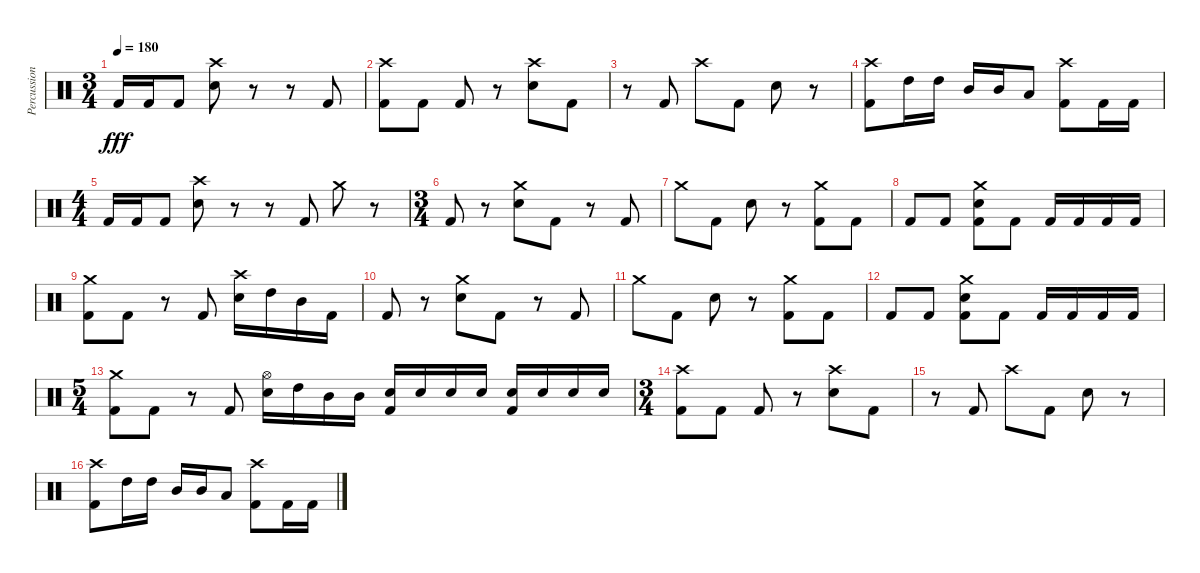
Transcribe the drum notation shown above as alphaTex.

\track ("Percussion" "Percussion") {instrument percussion}
\staff {score}
\articulation defaults
\ts (3 4)
\tempo 180
\clef neutral
\ks c "Kick (hit) 2".16{dy fff} "Kick (hit) 2".16 "Kick (hit) 2".8
("Crash high (hit)" "Electric Snare (hit)").8 r.8 r.8 "Kick (hit) 2".8 |
("Crash high (hit)" "Kick (hit) 2").8 "Kick (hit) 2".8 "Kick (hit) 2".8 r.8 ("Crash high (hit)" "Electric Snare (hit)").8 "Kick (hit) 2".8 |
r.8 "Kick (hit) 2".8 "Crash high (hit)".8 "Kick (hit) 2".8 "Electric Snare (hit)".8 r.8 |
("Crash high (hit)" "Kick (hit) 2").8 "High Tom (hit)".16 "High Tom (hit)".16 "Mid Tom (hit)".16 "Mid Tom (hit)".16 "Low Tom (hit)".8 ("Crash high (hit)" "Kick (hit) 2").8 "Kick (hit) 2".16 "Kick (hit) 2".16 |
\ts (4 4)
"Kick (hit) 2".16 "Kick (hit) 2".16 "Kick (hit) 2".8 ("Crash high (hit)" "Electric Snare (hit)").8 r.8 r.8 "Kick (hit) 2".8 "Crash medium (hit)".8 r.8 |
\ts (3 4)
"Kick (hit) 2".8 r.8 ("Crash medium (hit)" "Electric Snare (hit)").8 "Kick (hit) 2".8 r.8 "Kick (hit) 2".8 |
"Crash medium (hit)".8 "Kick (hit) 2".8 "Electric Snare (hit)".8 r.8 ("Crash medium (hit)" "Kick (hit) 2").8 "Kick (hit) 2".8 |
"Kick (hit) 2".8 "Kick (hit) 2".8 ("Crash medium (hit)" "Electric Snare (hit)" "Kick (hit) 2").8 "Kick (hit) 2".8 "Kick (hit) 2".16 "Kick (hit) 2".16 "Kick (hit) 2".16 "Kick (hit) 2".16 |
("Crash medium (hit)" "Kick (hit) 2").8 "Kick (hit) 2".8 r.8 "Kick (hit) 2".8 ("Crash high (hit)" "Electric Snare (hit)").16 "High Tom (hit)".16 "Mid Tom (hit)".16 "Kick (hit) 2".16 |
"Kick (hit) 2".8 r.8 ("Crash medium (hit)" "Electric Snare (hit)").8 "Kick (hit) 2".8 r.8 "Kick (hit) 2".8 |
"Crash medium (hit)".8 "Kick (hit) 2".8 "Electric Snare (hit)".8 r.8 ("Crash medium (hit)" "Kick (hit) 2").8 "Kick (hit) 2".8 |
"Kick (hit) 2".8 "Kick (hit) 2".8 ("Crash medium (hit)" "Electric Snare (hit)" "Kick (hit) 2").8 "Kick (hit) 2".8 "Kick (hit) 2".16 "Kick (hit) 2".16 "Kick (hit) 2".16 "Kick (hit) 2".16 |
\ts (5 4)
("Crash medium (hit)" "Kick (hit) 2").8 "Kick (hit) 2".8 r.8 "Kick (hit) 2".8 ("Hi-Hat (open)" "Electric Snare (hit)").16 "High Tom (hit)".16 "Mid Tom (hit)".16 "Mid Tom (hit)".16 ("Electric Snare (hit)" "Kick (hit) 2").16 "Electric Snare (hit)".16 "Electric Snare (hit)".16 "Electric Snare (hit)".16 ("Electric Snare (hit)" "Kick (hit) 2").16 "Electric Snare (hit)".16 "Electric Snare (hit)".16 "Electric Snare (hit)".16 |
\ts (3 4)
("Crash high (hit)" "Kick (hit) 2").8 "Kick (hit) 2".8 "Kick (hit) 2".8 r.8 ("Crash high (hit)" "Electric Snare (hit)").8 "Kick (hit) 2".8 |
r.8 "Kick (hit) 2".8 "Crash high (hit)".8 "Kick (hit) 2".8 "Electric Snare (hit)".8 r.8 |
("Crash high (hit)" "Kick (hit) 2").8 "High Tom (hit)".16 "High Tom (hit)".16 "Mid Tom (hit)".16 "Mid Tom (hit)".16 "Low Tom (hit)".8 ("Crash high (hit)" "Kick (hit) 2").8 "Kick (hit) 2".16 "Kick (hit) 2".16
